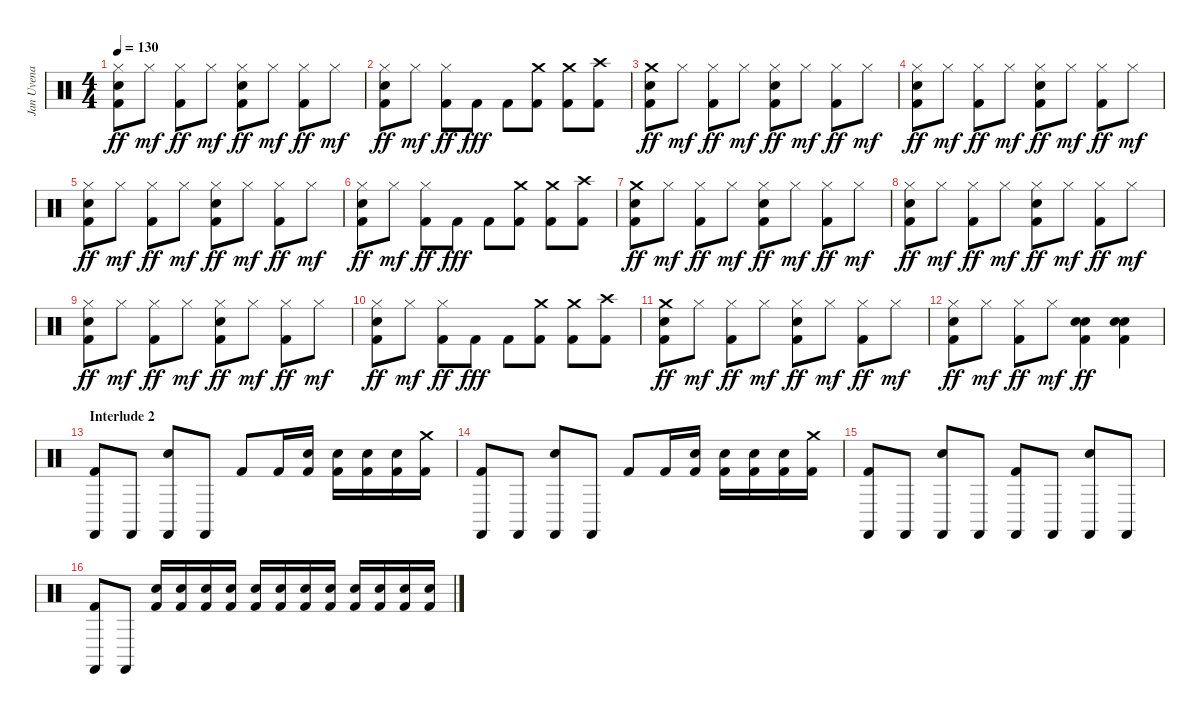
\track ("Jan Uvena" "Jan Uvena") {instrument percussion}
\staff {score}
\articulation defaults
\ts (4 4)
\tempo 130
\clef neutral
\ks c
("Hi-Hat (closed)" "Snare (hit) 2" "Kick (hit) 2").8{dy ff} "Hi-Hat (closed)".8{dy mf} ("Hi-Hat (closed)" "Kick (hit) 2").8{dy ff} "Hi-Hat (closed)".8{dy mf} ("Hi-Hat (closed)" "Snare (hit) 2" "Kick (hit) 2").8{dy ff} "Hi-Hat (closed)".8{dy mf} ("Hi-Hat (closed)" "Kick (hit) 2").8{dy ff} "Hi-Hat (closed)".8{dy mf} |
("Hi-Hat (closed)" "Snare (hit) 2" "Kick (hit) 2").8{dy ff} "Hi-Hat (closed)".8{dy mf} ("Hi-Hat (closed)" "Kick (hit) 2").8{dy ff} "Kick (hit) 2".8{dy fff} "Kick (hit) 2".8 ("Crash medium (hit)" "Kick (hit) 2").8 ("Crash medium (hit)" "Kick (hit) 2").8 ("Crash high (hit)" "Kick (hit) 2").8 |
("Crash medium (hit)" "Snare (hit) 2" "Kick (hit) 2").8{dy ff} "Hi-Hat (closed)".8{dy mf} ("Hi-Hat (closed)" "Kick (hit) 2").8{dy ff} "Hi-Hat (closed)".8{dy mf} ("Hi-Hat (closed)" "Snare (hit) 2" "Kick (hit) 2").8{dy ff} "Hi-Hat (closed)".8{dy mf} ("Hi-Hat (closed)" "Kick (hit) 2").8{dy ff} "Hi-Hat (closed)".8{dy mf} |
("Hi-Hat (closed)" "Snare (hit) 2" "Kick (hit) 2").8{dy ff} "Hi-Hat (closed)".8{dy mf} ("Hi-Hat (closed)" "Kick (hit) 2").8{dy ff} "Hi-Hat (closed)".8{dy mf} ("Hi-Hat (closed)" "Snare (hit) 2" "Kick (hit) 2").8{dy ff} "Hi-Hat (closed)".8{dy mf} ("Hi-Hat (closed)" "Kick (hit) 2").8{dy ff} "Hi-Hat (closed)".8{dy mf} |
("Hi-Hat (closed)" "Snare (hit) 2" "Kick (hit) 2").8{dy ff} "Hi-Hat (closed)".8{dy mf} ("Hi-Hat (closed)" "Kick (hit) 2").8{dy ff} "Hi-Hat (closed)".8{dy mf} ("Hi-Hat (closed)" "Snare (hit) 2" "Kick (hit) 2").8{dy ff} "Hi-Hat (closed)".8{dy mf} ("Hi-Hat (closed)" "Kick (hit) 2").8{dy ff} "Hi-Hat (closed)".8{dy mf} |
("Hi-Hat (closed)" "Snare (hit) 2" "Kick (hit) 2").8{dy ff} "Hi-Hat (closed)".8{dy mf} ("Hi-Hat (closed)" "Kick (hit) 2").8{dy ff} "Kick (hit) 2".8{dy fff} "Kick (hit) 2".8 ("Crash medium (hit)" "Kick (hit) 2").8 ("Crash medium (hit)" "Kick (hit) 2").8 ("Crash high (hit)" "Kick (hit) 2").8 |
("Crash medium (hit)" "Snare (hit) 2" "Kick (hit) 2").8{dy ff} "Hi-Hat (closed)".8{dy mf} ("Hi-Hat (closed)" "Kick (hit) 2").8{dy ff} "Hi-Hat (closed)".8{dy mf} ("Hi-Hat (closed)" "Snare (hit) 2" "Kick (hit) 2").8{dy ff} "Hi-Hat (closed)".8{dy mf} ("Hi-Hat (closed)" "Kick (hit) 2").8{dy ff} "Hi-Hat (closed)".8{dy mf} |
("Hi-Hat (closed)" "Snare (hit) 2" "Kick (hit) 2").8{dy ff} "Hi-Hat (closed)".8{dy mf} ("Hi-Hat (closed)" "Kick (hit) 2").8{dy ff} "Hi-Hat (closed)".8{dy mf} ("Hi-Hat (closed)" "Snare (hit) 2" "Kick (hit) 2").8{dy ff} "Hi-Hat (closed)".8{dy mf} ("Hi-Hat (closed)" "Kick (hit) 2").8{dy ff} "Hi-Hat (closed)".8{dy mf} |
("Hi-Hat (closed)" "Snare (hit) 2" "Kick (hit) 2").8{dy ff} "Hi-Hat (closed)".8{dy mf} ("Hi-Hat (closed)" "Kick (hit) 2").8{dy ff} "Hi-Hat (closed)".8{dy mf} ("Hi-Hat (closed)" "Snare (hit) 2" "Kick (hit) 2").8{dy ff} "Hi-Hat (closed)".8{dy mf} ("Hi-Hat (closed)" "Kick (hit) 2").8{dy ff} "Hi-Hat (closed)".8{dy mf} |
("Hi-Hat (closed)" "Snare (hit) 2" "Kick (hit) 2").8{dy ff} "Hi-Hat (closed)".8{dy mf} ("Hi-Hat (closed)" "Kick (hit) 2").8{dy ff} "Kick (hit) 2".8{dy fff} "Kick (hit) 2".8 ("Crash medium (hit)" "Kick (hit) 2").8 ("Crash medium (hit)" "Kick (hit) 2").8 ("Crash high (hit)" "Kick (hit) 2").8 |
("Crash medium (hit)" "Snare (hit) 2" "Kick (hit) 2").8{dy ff} "Hi-Hat (closed)".8{dy mf} ("Hi-Hat (closed)" "Kick (hit) 2").8{dy ff} "Hi-Hat (closed)".8{dy mf} ("Hi-Hat (closed)" "Snare (hit) 2" "Kick (hit) 2").8{dy ff} "Hi-Hat (closed)".8{dy mf} ("Hi-Hat (closed)" "Kick (hit) 2").8{dy ff} "Hi-Hat (closed)".8{dy mf} |
("Hi-Hat (closed)" "Snare (hit) 2" "Kick (hit) 2").8{dy ff} "Hi-Hat (closed)".8{dy mf} ("Hi-Hat (closed)" "Kick (hit) 2").8{dy ff} "Hi-Hat (closed)".8{dy mf} ("Electric Snare (hit)" "Snare (hit) 2" "Kick (hit) 2").4{dy ff} ("Electric Snare (hit)" "Snare (hit) 2" "Kick (hit) 2").4 |
\section ("" "Interlude 2")
("Castanets (hit)" "Kick (hit) 2").8 "Castanets (hit)".8 ("Castanets (hit)" "Snare (hit) 2").8 "Castanets (hit)".8 "Kick (hit) 2".8 "Kick (hit) 2".16 ("Snare (hit) 2" "Kick (hit) 2").16 ("Snare (hit) 2" "Kick (hit) 2").16 ("Snare (hit) 2" "Kick (hit) 2").16 ("Snare (hit) 2" "Kick (hit) 2").16 ("Crash medium (hit)" "Kick (hit) 2").16 |
("Castanets (hit)" "Kick (hit) 2").8 "Castanets (hit)".8 ("Castanets (hit)" "Snare (hit) 2").8 "Castanets (hit)".8 "Kick (hit) 2".8 "Kick (hit) 2".16 ("Snare (hit) 2" "Kick (hit) 2").16 ("Snare (hit) 2" "Kick (hit) 2").16 ("Snare (hit) 2" "Kick (hit) 2").16 ("Snare (hit) 2" "Kick (hit) 2").16 ("Crash medium (hit)" "Kick (hit) 2").16 |
("Castanets (hit)" "Kick (hit) 2").8 "Castanets (hit)".8 ("Castanets (hit)" "Snare (hit) 2").8 "Castanets (hit)".8 ("Castanets (hit)" "Kick (hit) 2").8 "Castanets (hit)".8 ("Castanets (hit)" "Snare (hit) 2").8 "Castanets (hit)".8 |
("Castanets (hit)" "Kick (hit) 2").8 "Castanets (hit)".8 ("Snare (hit) 2" "Kick (hit) 2").16 ("Snare (hit) 2" "Kick (hit) 2").16 ("Snare (hit) 2" "Kick (hit) 2").16 ("Snare (hit) 2" "Kick (hit) 2").16 ("Snare (hit) 2" "Kick (hit) 2").16 ("Snare (hit) 2" "Kick (hit) 2").16 ("Snare (hit) 2" "Kick (hit) 2").16 ("Snare (hit) 2" "Kick (hit) 2").16 ("Snare (hit) 2" "Kick (hit) 2").16 ("Snare (hit) 2" "Kick (hit) 2").16 ("Snare (hit) 2" "Kick (hit) 2").16 ("Snare (hit) 2" "Kick (hit) 2").16
